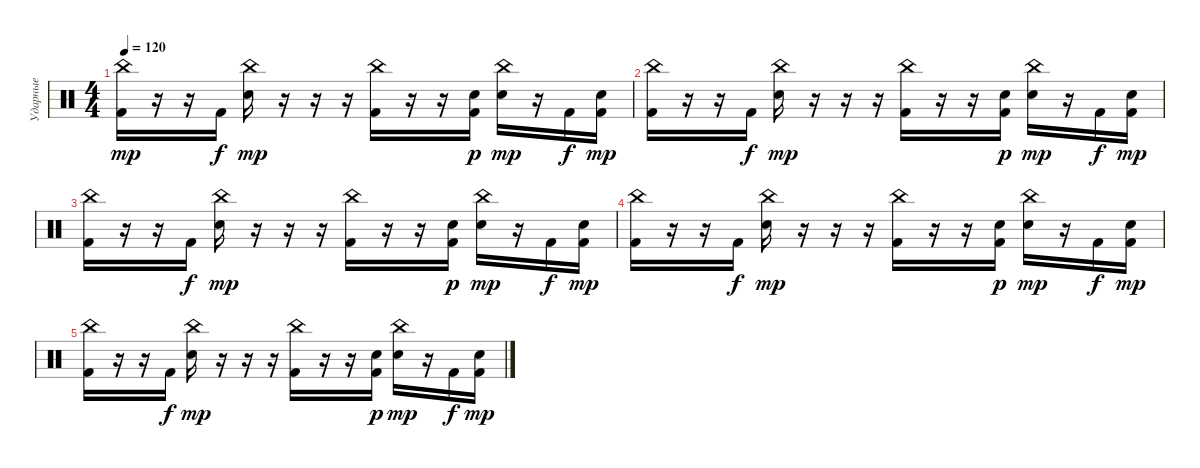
\track ("Ударные" "Ударные") {instrument percussion}
\staff {score}
\articulation defaults
\ts (4 4)
\tempo 120
\clef neutral
\ks c
("China (hit)" "Kick (hit) 2").16{dy mp} r.16 r.16 "Kick (hit) 2".16{dy f} ("China (hit)" "Electric Snare (hit)").16{dy mp} r.16 r.16 r.16 ("China (hit)" "Kick (hit) 2").16 r.16 r.16 ("Electric Snare (hit)" "Kick (hit) 2").16{dy p} ("China (hit)" "Electric Snare (hit)").16{dy mp} r.16 "Kick (hit) 2".16{dy f} ("Electric Snare (hit)" "Kick (hit) 2").16{dy mp} |
("China (hit)" "Kick (hit) 2").16 r.16 r.16 "Kick (hit) 2".16{dy f} ("China (hit)" "Electric Snare (hit)").16{dy mp} r.16 r.16 r.16 ("China (hit)" "Kick (hit) 2").16 r.16 r.16 ("Electric Snare (hit)" "Kick (hit) 2").16{dy p} ("China (hit)" "Electric Snare (hit)").16{dy mp} r.16 "Kick (hit) 2".16{dy f} ("Electric Snare (hit)" "Kick (hit) 2").16{dy mp} |
("China (hit)" "Kick (hit) 2").16 r.16 r.16 "Kick (hit) 2".16{dy f} ("China (hit)" "Electric Snare (hit)").16{dy mp} r.16 r.16 r.16 ("China (hit)" "Kick (hit) 2").16 r.16 r.16 ("Electric Snare (hit)" "Kick (hit) 2").16{dy p} ("China (hit)" "Electric Snare (hit)").16{dy mp} r.16 "Kick (hit) 2".16{dy f} ("Electric Snare (hit)" "Kick (hit) 2").16{dy mp} |
("China (hit)" "Kick (hit) 2").16 r.16 r.16 "Kick (hit) 2".16{dy f} ("China (hit)" "Electric Snare (hit)").16{dy mp} r.16 r.16 r.16 ("China (hit)" "Kick (hit) 2").16 r.16 r.16 ("Electric Snare (hit)" "Kick (hit) 2").16{dy p} ("China (hit)" "Electric Snare (hit)").16{dy mp} r.16 "Kick (hit) 2".16{dy f} ("Electric Snare (hit)" "Kick (hit) 2").16{dy mp} |
("China (hit)" "Kick (hit) 2").16 r.16 r.16 "Kick (hit) 2".16{dy f} ("China (hit)" "Electric Snare (hit)").16{dy mp} r.16 r.16 r.16 ("China (hit)" "Kick (hit) 2").16 r.16 r.16 ("Electric Snare (hit)" "Kick (hit) 2").16{dy p} ("China (hit)" "Electric Snare (hit)").16{dy mp} r.16 "Kick (hit) 2".16{dy f} ("Electric Snare (hit)" "Kick (hit) 2").16{dy mp}
